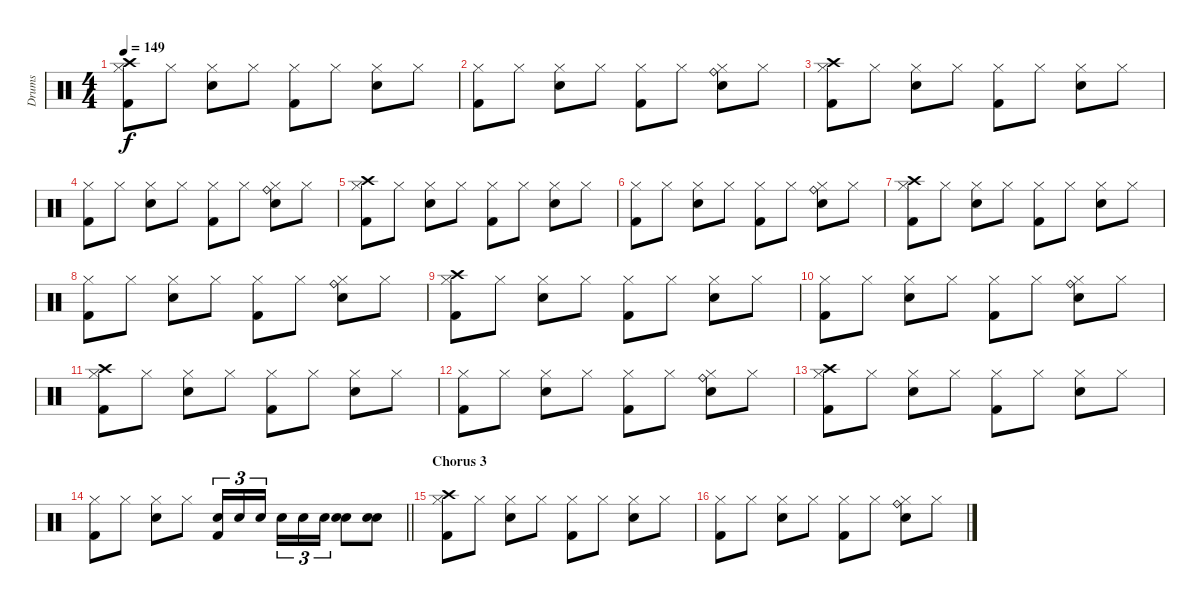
\track ("Drums" "Drums") {instrument percussion}
\staff {score}
\articulation defaults
\ts (4 4)
\tempo 149
\clef neutral
\ks c
("Hi-Hat (closed)" "Crash high (hit)" "Kick (hit) 2").8{dy f} "Hi-Hat (closed)".8 ("Hi-Hat (closed)" "Electric Snare (hit)").8 "Hi-Hat (closed)".8 ("Hi-Hat (closed)" "Kick (hit) 2").8 "Hi-Hat (closed)".8 ("Hi-Hat (closed)" "Electric Snare (hit)").8 "Hi-Hat (closed)".8 |
("Hi-Hat (closed)" "Kick (hit) 2").8 "Hi-Hat (closed)".8 ("Hi-Hat (closed)" "Electric Snare (hit)").8 "Hi-Hat (closed)".8 ("Hi-Hat (closed)" "Kick (hit) 2").8 "Hi-Hat (closed)".8 ("Ride (bell)" "Hi-Hat (closed)" "Electric Snare (hit)").8 "Hi-Hat (closed)".8 |
("Hi-Hat (closed)" "Crash high (hit)" "Kick (hit) 2").8 "Hi-Hat (closed)".8 ("Hi-Hat (closed)" "Electric Snare (hit)").8 "Hi-Hat (closed)".8 ("Hi-Hat (closed)" "Kick (hit) 2").8 "Hi-Hat (closed)".8 ("Hi-Hat (closed)" "Electric Snare (hit)").8 "Hi-Hat (closed)".8 |
("Hi-Hat (closed)" "Kick (hit) 2").8 "Hi-Hat (closed)".8 ("Hi-Hat (closed)" "Electric Snare (hit)").8 "Hi-Hat (closed)".8 ("Hi-Hat (closed)" "Kick (hit) 2").8 "Hi-Hat (closed)".8 ("Ride (bell)" "Hi-Hat (closed)" "Electric Snare (hit)").8 "Hi-Hat (closed)".8 |
("Hi-Hat (closed)" "Crash high (hit)" "Kick (hit) 2").8 "Hi-Hat (closed)".8 ("Hi-Hat (closed)" "Electric Snare (hit)").8 "Hi-Hat (closed)".8 ("Hi-Hat (closed)" "Kick (hit) 2").8 "Hi-Hat (closed)".8 ("Hi-Hat (closed)" "Electric Snare (hit)").8 "Hi-Hat (closed)".8 |
("Hi-Hat (closed)" "Kick (hit) 2").8 "Hi-Hat (closed)".8 ("Hi-Hat (closed)" "Electric Snare (hit)").8 "Hi-Hat (closed)".8 ("Hi-Hat (closed)" "Kick (hit) 2").8 "Hi-Hat (closed)".8 ("Ride (bell)" "Hi-Hat (closed)" "Electric Snare (hit)").8 "Hi-Hat (closed)".8 |
("Hi-Hat (closed)" "Crash high (hit)" "Kick (hit) 2").8 "Hi-Hat (closed)".8 ("Hi-Hat (closed)" "Electric Snare (hit)").8 "Hi-Hat (closed)".8 ("Hi-Hat (closed)" "Kick (hit) 2").8 "Hi-Hat (closed)".8 ("Hi-Hat (closed)" "Electric Snare (hit)").8 "Hi-Hat (closed)".8 |
("Hi-Hat (closed)" "Kick (hit) 2").8 "Hi-Hat (closed)".8 ("Hi-Hat (closed)" "Electric Snare (hit)").8 "Hi-Hat (closed)".8 ("Hi-Hat (closed)" "Kick (hit) 2").8 "Hi-Hat (closed)".8 ("Ride (bell)" "Hi-Hat (closed)" "Electric Snare (hit)").8 "Hi-Hat (closed)".8 |
("Hi-Hat (closed)" "Crash high (hit)" "Kick (hit) 2").8 "Hi-Hat (closed)".8 ("Hi-Hat (closed)" "Electric Snare (hit)").8 "Hi-Hat (closed)".8 ("Hi-Hat (closed)" "Kick (hit) 2").8 "Hi-Hat (closed)".8 ("Hi-Hat (closed)" "Electric Snare (hit)").8 "Hi-Hat (closed)".8 |
("Hi-Hat (closed)" "Kick (hit) 2").8 "Hi-Hat (closed)".8 ("Hi-Hat (closed)" "Electric Snare (hit)").8 "Hi-Hat (closed)".8 ("Hi-Hat (closed)" "Kick (hit) 2").8 "Hi-Hat (closed)".8 ("Ride (bell)" "Hi-Hat (closed)" "Electric Snare (hit)").8 "Hi-Hat (closed)".8 |
("Hi-Hat (closed)" "Crash high (hit)" "Kick (hit) 2").8 "Hi-Hat (closed)".8 ("Hi-Hat (closed)" "Electric Snare (hit)").8 "Hi-Hat (closed)".8 ("Hi-Hat (closed)" "Kick (hit) 2").8 "Hi-Hat (closed)".8 ("Hi-Hat (closed)" "Electric Snare (hit)").8 "Hi-Hat (closed)".8 |
("Hi-Hat (closed)" "Kick (hit) 2").8 "Hi-Hat (closed)".8 ("Hi-Hat (closed)" "Electric Snare (hit)").8 "Hi-Hat (closed)".8 ("Hi-Hat (closed)" "Kick (hit) 2").8 "Hi-Hat (closed)".8 ("Ride (bell)" "Hi-Hat (closed)" "Electric Snare (hit)").8 "Hi-Hat (closed)".8 |
("Hi-Hat (closed)" "Crash high (hit)" "Kick (hit) 2").8 "Hi-Hat (closed)".8 ("Hi-Hat (closed)" "Electric Snare (hit)").8 "Hi-Hat (closed)".8 ("Hi-Hat (closed)" "Kick (hit) 2").8 "Hi-Hat (closed)".8 ("Hi-Hat (closed)" "Electric Snare (hit)").8 "Hi-Hat (closed)".8 |
\barLineRight lightlight
("Hi-Hat (closed)" "Kick (hit) 2").8 "Hi-Hat (closed)".8 ("Hi-Hat (closed)" "Electric Snare (hit)").8 "Hi-Hat (closed)".8 ("Electric Snare (hit)" "Kick (hit) 2").16{tu (3 2)} "Electric Snare (hit)".16{tu (3 2)} "Electric Snare (hit)".16{tu (3 2) beam splitsecondary} "Electric Snare (hit)".16{tu (3 2)} "Electric Snare (hit)".16{tu (3 2)} "Electric Snare (hit)".16{tu (3 2)} ("Electric Snare (hit)" "Electric Snare (hit)").8 ("Electric Snare (hit)" "Electric Snare (hit)").8 |
\section ("" "Chorus 3")
("Hi-Hat (closed)" "Crash high (hit)" "Kick (hit) 2").8 "Hi-Hat (closed)".8 ("Hi-Hat (closed)" "Electric Snare (hit)").8 "Hi-Hat (closed)".8 ("Hi-Hat (closed)" "Kick (hit) 2").8 "Hi-Hat (closed)".8 ("Hi-Hat (closed)" "Electric Snare (hit)").8 "Hi-Hat (closed)".8 |
("Hi-Hat (closed)" "Kick (hit) 2").8 "Hi-Hat (closed)".8 ("Hi-Hat (closed)" "Electric Snare (hit)").8 "Hi-Hat (closed)".8 ("Hi-Hat (closed)" "Kick (hit) 2").8 "Hi-Hat (closed)".8 ("Ride (bell)" "Hi-Hat (closed)" "Electric Snare (hit)").8 "Hi-Hat (closed)".8
